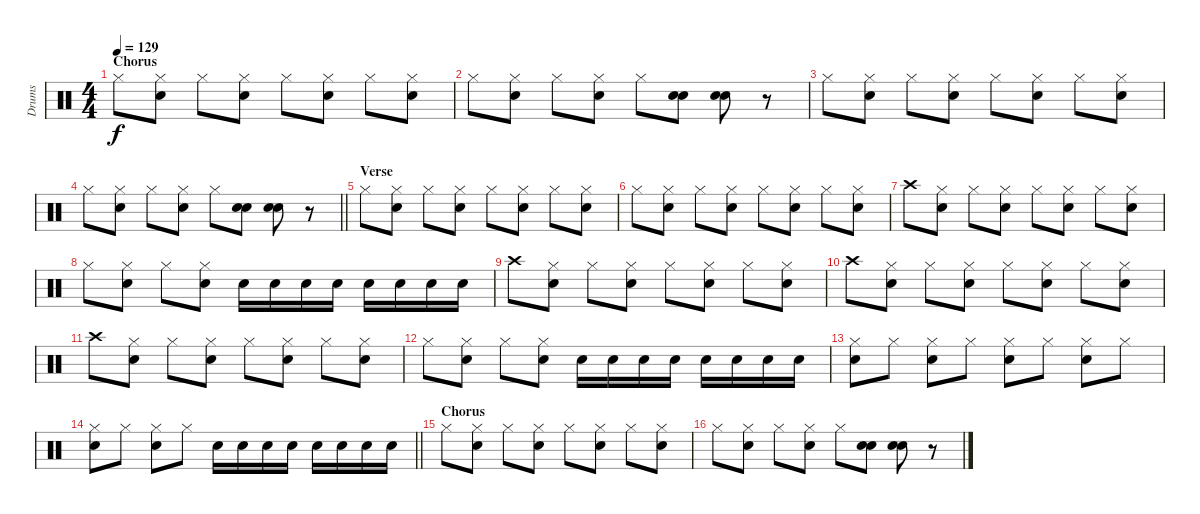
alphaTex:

\track ("Drums" "Drums") {instrument percussion}
\staff {score}
\articulation defaults
\ts (4 4)
\section ("" "Chorus")
\tempo 129
\clef neutral
\ks c "Hi-Hat (closed)".8{dy f}
("Hi-Hat (closed)" "Electric Snare (hit)").8 "Hi-Hat (closed)".8 ("Hi-Hat (closed)" "Electric Snare (hit)").8 "Hi-Hat (closed)".8 ("Hi-Hat (closed)" "Electric Snare (hit)").8 "Hi-Hat (closed)".8 ("Hi-Hat (closed)" "Electric Snare (hit)").8 |
"Hi-Hat (closed)".8 ("Hi-Hat (closed)" "Electric Snare (hit)").8 "Hi-Hat (closed)".8 ("Hi-Hat (closed)" "Electric Snare (hit)").8 "Hi-Hat (closed)".8 ("Electric Snare (hit)" "Electric Snare (hit)").8 ("Electric Snare (hit)" "Electric Snare (hit)").8 r.8 |
"Hi-Hat (closed)".8 ("Hi-Hat (closed)" "Electric Snare (hit)").8 "Hi-Hat (closed)".8 ("Hi-Hat (closed)" "Electric Snare (hit)").8 "Hi-Hat (closed)".8 ("Hi-Hat (closed)" "Electric Snare (hit)").8 "Hi-Hat (closed)".8 ("Hi-Hat (closed)" "Electric Snare (hit)").8 |
\barLineRight lightlight "Hi-Hat (closed)".8
("Hi-Hat (closed)" "Electric Snare (hit)").8 "Hi-Hat (closed)".8 ("Hi-Hat (closed)" "Electric Snare (hit)").8 "Hi-Hat (closed)".8 ("Electric Snare (hit)" "Electric Snare (hit)").8 ("Electric Snare (hit)" "Electric Snare (hit)").8 r.8 |
\section ("" "Verse")
"Hi-Hat (closed)".8 ("Hi-Hat (closed)" "Electric Snare (hit)").8 "Hi-Hat (closed)".8 ("Hi-Hat (closed)" "Electric Snare (hit)").8 "Hi-Hat (closed)".8 ("Hi-Hat (closed)" "Electric Snare (hit)").8 "Hi-Hat (closed)".8 ("Hi-Hat (closed)" "Electric Snare (hit)").8 |
"Hi-Hat (closed)".8 ("Hi-Hat (closed)" "Electric Snare (hit)").8 "Hi-Hat (closed)".8 ("Hi-Hat (closed)" "Electric Snare (hit)").8 "Hi-Hat (closed)".8 ("Hi-Hat (closed)" "Electric Snare (hit)").8 "Hi-Hat (closed)".8 ("Hi-Hat (closed)" "Electric Snare (hit)").8 |
"Crash high (hit)".8 ("Hi-Hat (closed)" "Electric Snare (hit)").8 "Hi-Hat (closed)".8 ("Hi-Hat (closed)" "Electric Snare (hit)").8 "Hi-Hat (closed)".8 ("Hi-Hat (closed)" "Electric Snare (hit)").8 "Hi-Hat (closed)".8 ("Hi-Hat (closed)" "Electric Snare (hit)").8 |
"Hi-Hat (closed)".8 ("Hi-Hat (closed)" "Electric Snare (hit)").8 "Hi-Hat (closed)".8 ("Hi-Hat (closed)" "Electric Snare (hit)").8 "Electric Snare (hit)".16 "Electric Snare (hit)".16 "Electric Snare (hit)".16 "Electric Snare (hit)".16 "Electric Snare (hit)".16 "Electric Snare (hit)".16 "Electric Snare (hit)".16 "Electric Snare (hit)".16 |
"Crash high (hit)".8 ("Hi-Hat (closed)" "Electric Snare (hit)").8 "Hi-Hat (closed)".8 ("Hi-Hat (closed)" "Electric Snare (hit)").8 "Hi-Hat (closed)".8 ("Hi-Hat (closed)" "Electric Snare (hit)").8 "Hi-Hat (closed)".8 ("Hi-Hat (closed)" "Electric Snare (hit)").8 |
"Crash high (hit)".8 ("Hi-Hat (closed)" "Electric Snare (hit)").8 "Hi-Hat (closed)".8 ("Hi-Hat (closed)" "Electric Snare (hit)").8 "Hi-Hat (closed)".8 ("Hi-Hat (closed)" "Electric Snare (hit)").8 "Hi-Hat (closed)".8 ("Hi-Hat (closed)" "Electric Snare (hit)").8 |
"Crash high (hit)".8 ("Hi-Hat (closed)" "Electric Snare (hit)").8 "Hi-Hat (closed)".8 ("Hi-Hat (closed)" "Electric Snare (hit)").8 "Hi-Hat (closed)".8 ("Hi-Hat (closed)" "Electric Snare (hit)").8 "Hi-Hat (closed)".8 ("Hi-Hat (closed)" "Electric Snare (hit)").8 |
"Hi-Hat (closed)".8 ("Hi-Hat (closed)" "Electric Snare (hit)").8 "Hi-Hat (closed)".8 ("Hi-Hat (closed)" "Electric Snare (hit)").8 "Electric Snare (hit)".16 "Electric Snare (hit)".16 "Electric Snare (hit)".16 "Electric Snare (hit)".16 "Electric Snare (hit)".16 "Electric Snare (hit)".16 "Electric Snare (hit)".16 "Electric Snare (hit)".16 |
("Hi-Hat (closed)" "Electric Snare (hit)").8 "Hi-Hat (closed)".8 ("Hi-Hat (closed)" "Electric Snare (hit)").8 "Hi-Hat (closed)".8 ("Hi-Hat (closed)" "Electric Snare (hit)").8 "Hi-Hat (closed)".8 ("Hi-Hat (closed)" "Electric Snare (hit)").8 "Hi-Hat (closed)".8 |
\barLineRight lightlight
("Hi-Hat (closed)" "Electric Snare (hit)").8 "Hi-Hat (closed)".8 ("Hi-Hat (closed)" "Electric Snare (hit)").8 "Hi-Hat (closed)".8 "Electric Snare (hit)".16 "Electric Snare (hit)".16 "Electric Snare (hit)".16 "Electric Snare (hit)".16 "Electric Snare (hit)".16 "Electric Snare (hit)".16 "Electric Snare (hit)".16 "Electric Snare (hit)".16 |
\section ("" "Chorus")
"Hi-Hat (closed)".8 ("Hi-Hat (closed)" "Electric Snare (hit)").8 "Hi-Hat (closed)".8 ("Hi-Hat (closed)" "Electric Snare (hit)").8 "Hi-Hat (closed)".8 ("Hi-Hat (closed)" "Electric Snare (hit)").8 "Hi-Hat (closed)".8 ("Hi-Hat (closed)" "Electric Snare (hit)").8 |
"Hi-Hat (closed)".8 ("Hi-Hat (closed)" "Electric Snare (hit)").8 "Hi-Hat (closed)".8 ("Hi-Hat (closed)" "Electric Snare (hit)").8 "Hi-Hat (closed)".8 ("Electric Snare (hit)" "Electric Snare (hit)").8 ("Electric Snare (hit)" "Electric Snare (hit)").8 r.8
